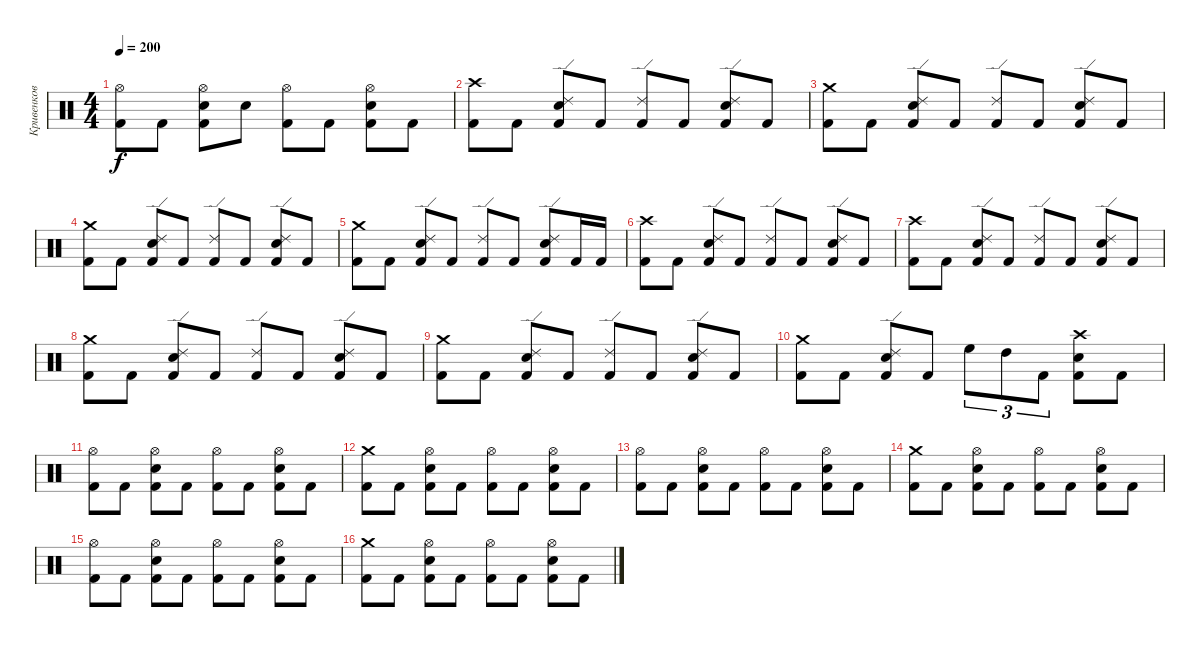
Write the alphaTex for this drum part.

\track ("Кривенков" "Кривенков") {instrument percussion}
\staff {score}
\articulation defaults
\ts (4 4)
\tempo 200
\clef neutral
\ks c
("Hi-Hat (open)" "Kick (hit) 2").8{dy f} "Kick (hit) 2".8 ("Hi-Hat (open)" "Electric Snare (hit)" "Kick (hit) 2").8 "Electric Snare (hit)".8 ("Hi-Hat (open)" "Kick (hit) 2").8 "Kick (hit) 2".8 ("Hi-Hat (open)" "Electric Snare (hit)" "Kick (hit) 2").8 "Kick (hit) 2".8 |
("Crash high (hit)" "Kick (hit) 2").8 "Kick (hit) 2".8 ("Ride (edge) 2" "Electric Snare (hit)" "Kick (hit) 2").8 "Kick (hit) 2".8 ("Ride (edge) 2" "Kick (hit) 2").8 "Kick (hit) 2".8 ("Ride (edge) 2" "Electric Snare (hit)" "Kick (hit) 2").8 "Kick (hit) 2".8 |
("Crash medium (hit)" "Kick (hit) 2").8 "Kick (hit) 2".8 ("Ride (edge) 2" "Electric Snare (hit)" "Kick (hit) 2").8 "Kick (hit) 2".8 ("Ride (edge) 2" "Kick (hit) 2").8 "Kick (hit) 2".8 ("Ride (edge) 2" "Electric Snare (hit)" "Kick (hit) 2").8 "Kick (hit) 2".8 |
("Crash medium (hit)" "Kick (hit) 2").8 "Kick (hit) 2".8 ("Ride (edge) 2" "Electric Snare (hit)" "Kick (hit) 2").8 "Kick (hit) 2".8 ("Ride (edge) 2" "Kick (hit) 2").8 "Kick (hit) 2".8 ("Ride (edge) 2" "Electric Snare (hit)" "Kick (hit) 2").8 "Kick (hit) 2".8 |
("Crash medium (hit)" "Kick (hit) 2").8 "Kick (hit) 2".8 ("Ride (edge) 2" "Electric Snare (hit)" "Kick (hit) 2").8 "Kick (hit) 2".8 ("Ride (edge) 2" "Kick (hit) 2").8 "Kick (hit) 2".8 ("Ride (edge) 2" "Electric Snare (hit)" "Kick (hit) 2").8 "Kick (hit) 2".16 "Kick (hit) 2".16 |
("Crash high (hit)" "Kick (hit) 2").8 "Kick (hit) 2".8 ("Ride (edge) 2" "Electric Snare (hit)" "Kick (hit) 2").8 "Kick (hit) 2".8 ("Ride (edge) 2" "Kick (hit) 2").8 "Kick (hit) 2".8 ("Ride (edge) 2" "Electric Snare (hit)" "Kick (hit) 2").8 "Kick (hit) 2".8 |
("Crash high (hit)" "Kick (hit) 2").8 "Kick (hit) 2".8 ("Ride (edge) 2" "Electric Snare (hit)" "Kick (hit) 2").8 "Kick (hit) 2".8 ("Ride (edge) 2" "Kick (hit) 2").8 "Kick (hit) 2".8 ("Ride (edge) 2" "Electric Snare (hit)" "Kick (hit) 2").8 "Kick (hit) 2".8 |
("Crash medium (hit)" "Kick (hit) 2").8 "Kick (hit) 2".8 ("Ride (edge) 2" "Electric Snare (hit)" "Kick (hit) 2").8 "Kick (hit) 2".8 ("Ride (edge) 2" "Kick (hit) 2").8 "Kick (hit) 2".8 ("Ride (edge) 2" "Electric Snare (hit)" "Kick (hit) 2").8 "Kick (hit) 2".8 |
("Crash medium (hit)" "Kick (hit) 2").8 "Kick (hit) 2".8 ("Ride (edge) 2" "Electric Snare (hit)" "Kick (hit) 2").8 "Kick (hit) 2".8 ("Ride (edge) 2" "Kick (hit) 2").8 "Kick (hit) 2".8 ("Ride (edge) 2" "Electric Snare (hit)" "Kick (hit) 2").8 "Kick (hit) 2".8 |
("Crash medium (hit)" "Kick (hit) 2").8 "Kick (hit) 2".8 ("Ride (edge) 2" "Electric Snare (hit)" "Kick (hit) 2").8 "Kick (hit) 2".8 "High Floor Tom (hit)".8{tu (3 2)} "High Tom (hit)".8{tu (3 2)} "Kick (hit) 2".8{tu (3 2)} ("Crash high (hit)" "Electric Snare (hit)" "Kick (hit) 2").8 "Kick (hit) 2".8 |
("Hi-Hat (open)" "Kick (hit) 2").8 "Kick (hit) 2".8 ("Hi-Hat (open)" "Electric Snare (hit)" "Kick (hit) 2").8 "Kick (hit) 2".8 ("Hi-Hat (open)" "Kick (hit) 2").8 "Kick (hit) 2".8 ("Hi-Hat (open)" "Electric Snare (hit)" "Kick (hit) 2").8 "Kick (hit) 2".8 |
("Crash medium (hit)" "Kick (hit) 2").8 "Kick (hit) 2".8 ("Hi-Hat (open)" "Electric Snare (hit)" "Kick (hit) 2").8 "Kick (hit) 2".8 ("Hi-Hat (open)" "Kick (hit) 2").8 "Kick (hit) 2".8 ("Hi-Hat (open)" "Electric Snare (hit)" "Kick (hit) 2").8 "Kick (hit) 2".8 |
("Hi-Hat (open)" "Kick (hit) 2").8 "Kick (hit) 2".8 ("Hi-Hat (open)" "Electric Snare (hit)" "Kick (hit) 2").8 "Kick (hit) 2".8 ("Hi-Hat (open)" "Kick (hit) 2").8 "Kick (hit) 2".8 ("Hi-Hat (open)" "Electric Snare (hit)" "Kick (hit) 2").8 "Kick (hit) 2".8 |
("Crash medium (hit)" "Kick (hit) 2").8 "Kick (hit) 2".8 ("Hi-Hat (open)" "Electric Snare (hit)" "Kick (hit) 2").8 "Kick (hit) 2".8 ("Hi-Hat (open)" "Kick (hit) 2").8 "Kick (hit) 2".8 ("Hi-Hat (open)" "Electric Snare (hit)" "Kick (hit) 2").8 "Kick (hit) 2".8 |
("Hi-Hat (open)" "Kick (hit) 2").8 "Kick (hit) 2".8 ("Hi-Hat (open)" "Electric Snare (hit)" "Kick (hit) 2").8 "Kick (hit) 2".8 ("Hi-Hat (open)" "Kick (hit) 2").8 "Kick (hit) 2".8 ("Hi-Hat (open)" "Electric Snare (hit)" "Kick (hit) 2").8 "Kick (hit) 2".8 |
("Crash medium (hit)" "Kick (hit) 2").8 "Kick (hit) 2".8 ("Hi-Hat (open)" "Electric Snare (hit)" "Kick (hit) 2").8 "Kick (hit) 2".8 ("Hi-Hat (open)" "Kick (hit) 2").8 "Kick (hit) 2".8 ("Hi-Hat (open)" "Electric Snare (hit)" "Kick (hit) 2").8 "Kick (hit) 2".8
